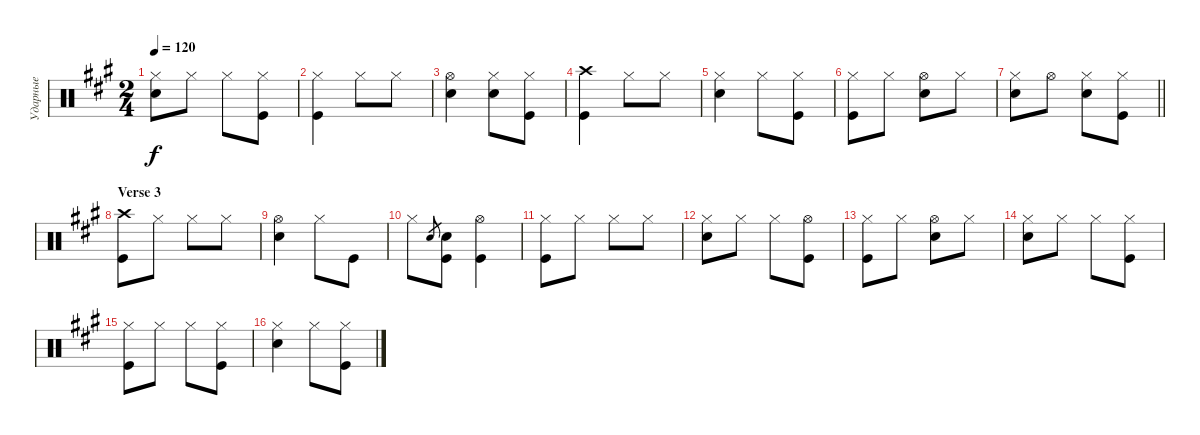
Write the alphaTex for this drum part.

\track ("Ударные" "Ударные") {instrument percussion}
\staff {score}
\articulation defaults
\ts (2 4)
\tempo 120
\clef neutral
\ks f#minor
("Hi-Hat (closed)" "Snare (hit) 2").8{dy f} "Hi-Hat (closed)".8 "Hi-Hat (closed)".8 ("Hi-Hat (closed)" "Kick (hit)").8 |
("Hi-Hat (closed)" "Kick (hit)").4 "Hi-Hat (closed)".8 "Hi-Hat (closed)".8 |
("Snare (hit) 2" "Hi-Hat (open)").4 ("Hi-Hat (closed)" "Snare (hit) 2").8 ("Hi-Hat (closed)" "Kick (hit)").8 |
("Kick (hit)" "Crash high (hit)").4 "Hi-Hat (closed)".8 "Hi-Hat (closed)".8 |
("Snare (hit) 2" "Hi-Hat (closed)").4 "Hi-Hat (closed)".8 ("Hi-Hat (closed)" "Kick (hit)").8 |
("Kick (hit)" "Hi-Hat (closed)").8 "Hi-Hat (closed)".8 ("Hi-Hat (open)" "Snare (hit) 2").8 "Hi-Hat (closed)".8 |
\barLineRight lightlight
("Hi-Hat (closed)" "Snare (hit) 2").8 "Hi-Hat (open)".8 ("Hi-Hat (closed)" "Snare (hit) 2").8 ("Hi-Hat (closed)" "Kick (hit)").8 |
\section ("" "Verse 3")
("Kick (hit)" "Crash high (hit)").8 "Hi-Hat (closed)".8 "Hi-Hat (closed)".8 "Hi-Hat (closed)".8 |
("Hi-Hat (open)" "Snare (hit) 2").4 "Hi-Hat (closed)".8 "Kick (hit)".8 |
"Hi-Hat (closed)".8 "Snare (hit) 2".8{gr} ("Snare (hit) 2" "Kick (hit)").8 ("Kick (hit)" "Hi-Hat (open)").4 |
("Kick (hit)" "Hi-Hat (closed)").8 "Hi-Hat (closed)".8 "Hi-Hat (closed)".8 "Hi-Hat (closed)".8 |
("Hi-Hat (closed)" "Snare (hit) 2").8 "Hi-Hat (closed)".8 "Hi-Hat (closed)".8 ("Hi-Hat (open)" "Kick (hit)").8 |
("Kick (hit)" "Hi-Hat (closed)").8 "Hi-Hat (closed)".8 ("Snare (hit) 2" "Hi-Hat (open)").8 "Hi-Hat (closed)".8 |
("Snare (hit) 2" "Hi-Hat (closed)").8 "Hi-Hat (closed)".8 "Hi-Hat (closed)".8 ("Hi-Hat (closed)" "Kick (hit)").8 |
("Kick (hit)" "Hi-Hat (closed)").8 "Hi-Hat (closed)".8 "Hi-Hat (closed)".8 ("Hi-Hat (closed)" "Kick (hit)").8 |
("Hi-Hat (closed)" "Snare (hit) 2").4 "Hi-Hat (closed)".8 ("Kick (hit)" "Hi-Hat (closed)").8
